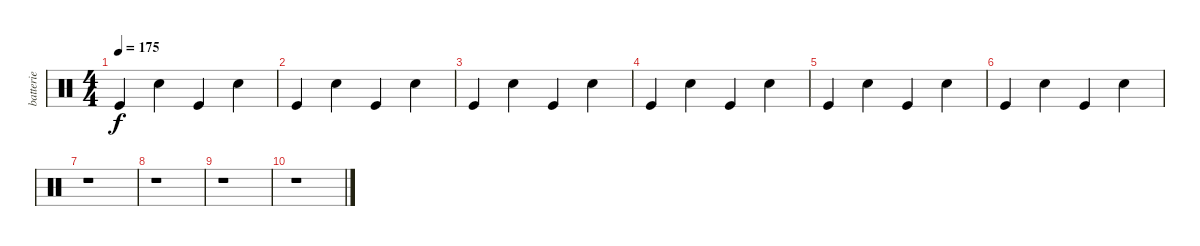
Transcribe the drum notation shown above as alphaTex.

\track ("batterie" "batterie") {instrument percussion}
\staff {score}
\articulation defaults
\ts (4 4)
\tempo 175
\clef neutral
\ks c "Kick (hit)".4{dy f} "Snare (hit) 2".4 "Kick (hit)".4 "Snare (hit) 2".4
|
"Kick (hit)".4 "Snare (hit) 2".4 "Kick (hit)".4 "Snare (hit) 2".4 |
"Kick (hit)".4 "Snare (hit) 2".4 "Kick (hit)".4 "Snare (hit) 2".4 |
"Kick (hit)".4 "Snare (hit) 2".4 "Kick (hit)".4 "Snare (hit) 2".4 |
"Kick (hit)".4 "Snare (hit) 2".4 "Kick (hit)".4 "Snare (hit) 2".4 |
"Kick (hit)".4 "Snare (hit) 2".4 "Kick (hit)".4 "Snare (hit) 2".4 |
r.1 |
r.1 |
r.1 |
r.1
